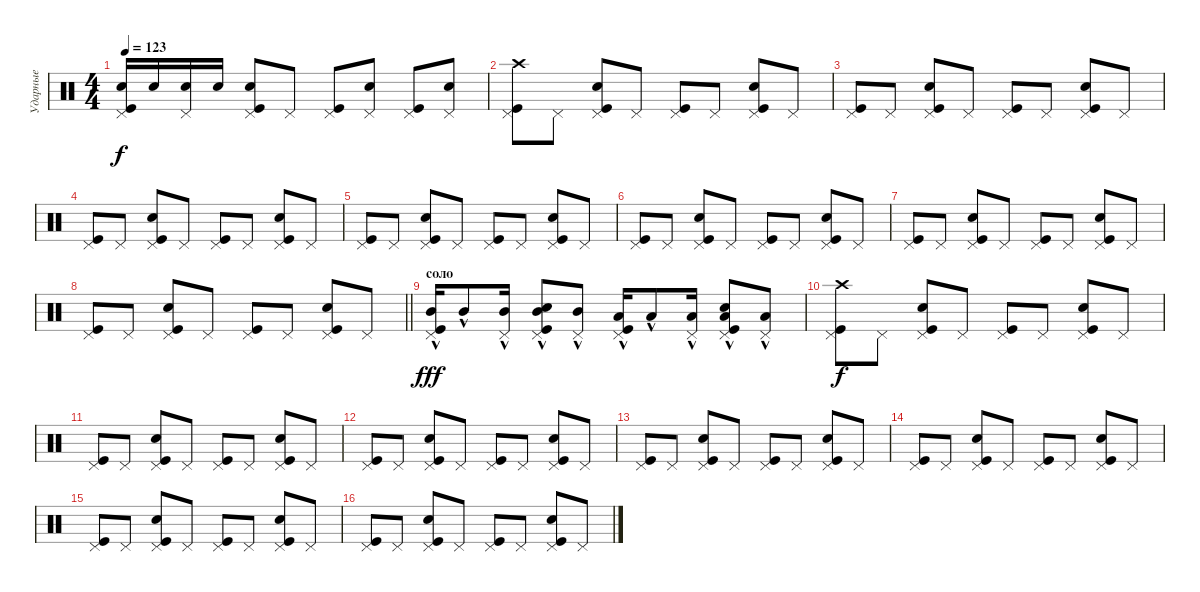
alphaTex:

\track ("Ударные" "Ударные") {instrument percussion}
\staff {score}
\articulation defaults
\ts (4 4)
\tempo 123
\clef neutral
\ks c
("Snare (hit) 2" "Pedal Hi-Hat (hit)" "Kick (hit)").16{dy f} "Snare (hit) 2".16 ("Snare (hit) 2" "Pedal Hi-Hat (hit)").16 "Snare (hit) 2".16 ("Pedal Hi-Hat (hit)" "Kick (hit)" "Snare (hit) 2").8 "Pedal Hi-Hat (hit)".8 ("Pedal Hi-Hat (hit)" "Kick (hit)").8 ("Snare (hit) 2" "Pedal Hi-Hat (hit)").8 ("Pedal Hi-Hat (hit)" "Kick (hit)").8 ("Snare (hit) 2" "Pedal Hi-Hat (hit)").8 |
("Pedal Hi-Hat (hit)" "Kick (hit)" "Crash high (hit)").8 "Pedal Hi-Hat (hit)".8 ("Pedal Hi-Hat (hit)" "Kick (hit)" "Snare (hit) 2").8 "Pedal Hi-Hat (hit)".8 ("Pedal Hi-Hat (hit)" "Kick (hit)").8 "Pedal Hi-Hat (hit)".8 ("Pedal Hi-Hat (hit)" "Kick (hit)" "Snare (hit) 2").8 "Pedal Hi-Hat (hit)".8 |
("Pedal Hi-Hat (hit)" "Kick (hit)").8 "Pedal Hi-Hat (hit)".8 ("Pedal Hi-Hat (hit)" "Kick (hit)" "Snare (hit) 2").8 "Pedal Hi-Hat (hit)".8 ("Pedal Hi-Hat (hit)" "Kick (hit)").8 "Pedal Hi-Hat (hit)".8 ("Pedal Hi-Hat (hit)" "Kick (hit)" "Snare (hit) 2").8 "Pedal Hi-Hat (hit)".8 |
("Pedal Hi-Hat (hit)" "Kick (hit)").8 "Pedal Hi-Hat (hit)".8 ("Pedal Hi-Hat (hit)" "Kick (hit)" "Snare (hit) 2").8 "Pedal Hi-Hat (hit)".8 ("Pedal Hi-Hat (hit)" "Kick (hit)").8 "Pedal Hi-Hat (hit)".8 ("Pedal Hi-Hat (hit)" "Kick (hit)" "Snare (hit) 2").8 "Pedal Hi-Hat (hit)".8 |
("Pedal Hi-Hat (hit)" "Kick (hit)").8 "Pedal Hi-Hat (hit)".8 ("Pedal Hi-Hat (hit)" "Kick (hit)" "Snare (hit) 2").8 "Pedal Hi-Hat (hit)".8 ("Pedal Hi-Hat (hit)" "Kick (hit)").8 "Pedal Hi-Hat (hit)".8 ("Pedal Hi-Hat (hit)" "Kick (hit)" "Snare (hit) 2").8 "Pedal Hi-Hat (hit)".8 |
("Pedal Hi-Hat (hit)" "Kick (hit)").8 "Pedal Hi-Hat (hit)".8 ("Pedal Hi-Hat (hit)" "Kick (hit)" "Snare (hit) 2").8 "Pedal Hi-Hat (hit)".8 ("Pedal Hi-Hat (hit)" "Kick (hit)").8 "Pedal Hi-Hat (hit)".8 ("Pedal Hi-Hat (hit)" "Kick (hit)" "Snare (hit) 2").8 "Pedal Hi-Hat (hit)".8 |
("Pedal Hi-Hat (hit)" "Kick (hit)").8 "Pedal Hi-Hat (hit)".8 ("Pedal Hi-Hat (hit)" "Kick (hit)" "Snare (hit) 2").8 "Pedal Hi-Hat (hit)".8 ("Pedal Hi-Hat (hit)" "Kick (hit)").8 "Pedal Hi-Hat (hit)".8 ("Pedal Hi-Hat (hit)" "Kick (hit)" "Snare (hit) 2").8 "Pedal Hi-Hat (hit)".8 |
\barLineRight lightlight
("Pedal Hi-Hat (hit)" "Kick (hit)").8 "Pedal Hi-Hat (hit)".8 ("Pedal Hi-Hat (hit)" "Kick (hit)" "Snare (hit) 2").8 "Pedal Hi-Hat (hit)".8 ("Pedal Hi-Hat (hit)" "Kick (hit)").8 "Pedal Hi-Hat (hit)".8 ("Pedal Hi-Hat (hit)" "Kick (hit)" "Snare (hit) 2").8 "Pedal Hi-Hat (hit)".8 |
\section ("" "соло")
("Mid Tom (hit)"{hac} "Kick (hit)" "Pedal Hi-Hat (hit)").16{dy fff} "Mid Tom (hit)"{hac}.8 ("Mid Tom (hit)"{hac} "Pedal Hi-Hat (hit)").16 ("Mid Tom (hit)"{hac} "Kick (hit)" "Pedal Hi-Hat (hit)" "Snare (hit) 2").8 ("Mid Tom (hit)"{hac} "Pedal Hi-Hat (hit)").8 ("Low Tom (hit)"{hac} "Kick (hit)" "Pedal Hi-Hat (hit)").16 "Low Tom (hit)"{hac}.8 ("Low Tom (hit)"{hac} "Pedal Hi-Hat (hit)").16 ("Low Tom (hit)"{hac} "Kick (hit)" "Pedal Hi-Hat (hit)" "Snare (hit) 2").8 ("Low Tom (hit)"{hac} "Pedal Hi-Hat (hit)").8 |
("Pedal Hi-Hat (hit)" "Kick (hit)" "Crash high (hit)").8{dy f} "Pedal Hi-Hat (hit)".8 ("Pedal Hi-Hat (hit)" "Kick (hit)" "Snare (hit) 2").8 "Pedal Hi-Hat (hit)".8 ("Pedal Hi-Hat (hit)" "Kick (hit)").8 "Pedal Hi-Hat (hit)".8 ("Pedal Hi-Hat (hit)" "Kick (hit)" "Snare (hit) 2").8 "Pedal Hi-Hat (hit)".8 |
("Pedal Hi-Hat (hit)" "Kick (hit)").8 "Pedal Hi-Hat (hit)".8 ("Pedal Hi-Hat (hit)" "Kick (hit)" "Snare (hit) 2").8 "Pedal Hi-Hat (hit)".8 ("Pedal Hi-Hat (hit)" "Kick (hit)").8 "Pedal Hi-Hat (hit)".8 ("Pedal Hi-Hat (hit)" "Kick (hit)" "Snare (hit) 2").8 "Pedal Hi-Hat (hit)".8 |
("Pedal Hi-Hat (hit)" "Kick (hit)").8 "Pedal Hi-Hat (hit)".8 ("Pedal Hi-Hat (hit)" "Kick (hit)" "Snare (hit) 2").8 "Pedal Hi-Hat (hit)".8 ("Pedal Hi-Hat (hit)" "Kick (hit)").8 "Pedal Hi-Hat (hit)".8 ("Pedal Hi-Hat (hit)" "Kick (hit)" "Snare (hit) 2").8 "Pedal Hi-Hat (hit)".8 |
("Pedal Hi-Hat (hit)" "Kick (hit)").8 "Pedal Hi-Hat (hit)".8 ("Pedal Hi-Hat (hit)" "Kick (hit)" "Snare (hit) 2").8 "Pedal Hi-Hat (hit)".8 ("Pedal Hi-Hat (hit)" "Kick (hit)").8 "Pedal Hi-Hat (hit)".8 ("Pedal Hi-Hat (hit)" "Kick (hit)" "Snare (hit) 2").8 "Pedal Hi-Hat (hit)".8 |
("Pedal Hi-Hat (hit)" "Kick (hit)").8 "Pedal Hi-Hat (hit)".8 ("Pedal Hi-Hat (hit)" "Kick (hit)" "Snare (hit) 2").8 "Pedal Hi-Hat (hit)".8 ("Pedal Hi-Hat (hit)" "Kick (hit)").8 "Pedal Hi-Hat (hit)".8 ("Pedal Hi-Hat (hit)" "Kick (hit)" "Snare (hit) 2").8 "Pedal Hi-Hat (hit)".8 |
("Pedal Hi-Hat (hit)" "Kick (hit)").8 "Pedal Hi-Hat (hit)".8 ("Pedal Hi-Hat (hit)" "Kick (hit)" "Snare (hit) 2").8 "Pedal Hi-Hat (hit)".8 ("Pedal Hi-Hat (hit)" "Kick (hit)").8 "Pedal Hi-Hat (hit)".8 ("Pedal Hi-Hat (hit)" "Kick (hit)" "Snare (hit) 2").8 "Pedal Hi-Hat (hit)".8 |
("Pedal Hi-Hat (hit)" "Kick (hit)").8 "Pedal Hi-Hat (hit)".8 ("Pedal Hi-Hat (hit)" "Kick (hit)" "Snare (hit) 2").8 "Pedal Hi-Hat (hit)".8 ("Pedal Hi-Hat (hit)" "Kick (hit)").8 "Pedal Hi-Hat (hit)".8 ("Pedal Hi-Hat (hit)" "Kick (hit)" "Snare (hit) 2").8 "Pedal Hi-Hat (hit)".8
